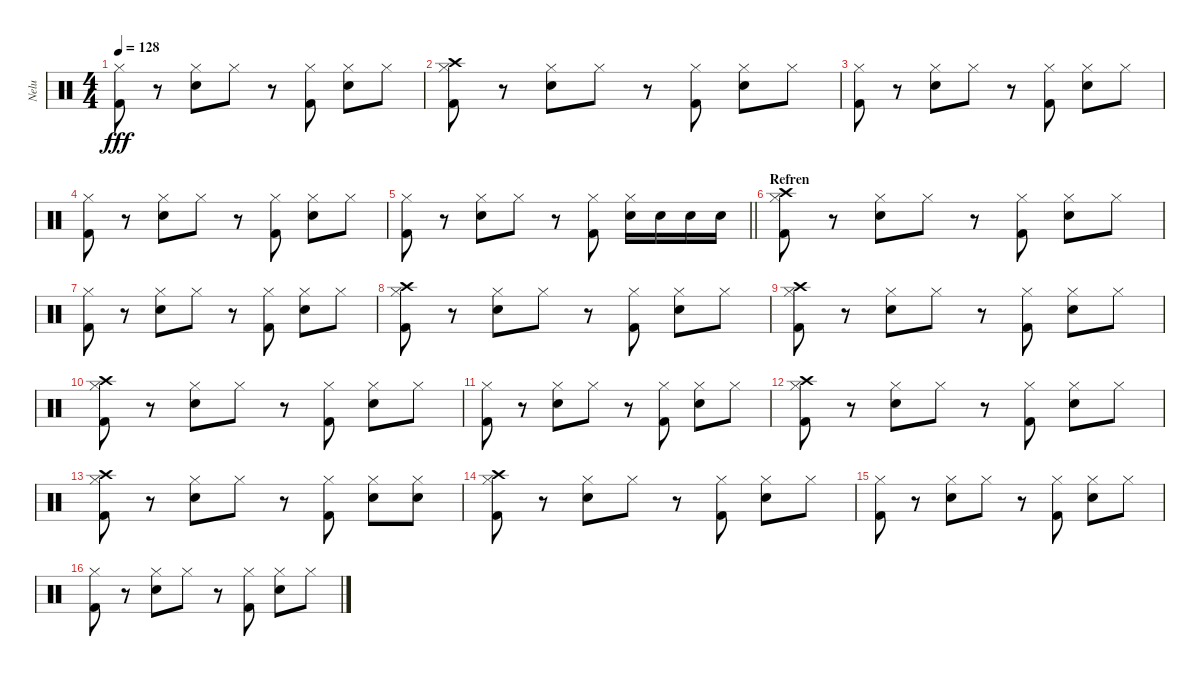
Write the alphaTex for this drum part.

\track ("Nelu" "Nelu") {instrument percussion}
\staff {score}
\articulation defaults
\ts (4 4)
\tempo 128
\clef neutral
\ks c
("Kick (hit) 2" "Hi-Hat (closed)").8{dy fff} r.8 ("Electric Snare (hit)" "Hi-Hat (closed)").8 "Hi-Hat (closed)".8 r.8 ("Hi-Hat (closed)" "Kick (hit) 2").8 ("Hi-Hat (closed)" "Electric Snare (hit)").8 "Hi-Hat (closed)".8 |
("Kick (hit) 2" "Crash high (hit)" "Hi-Hat (closed)").8 r.8 ("Electric Snare (hit)" "Hi-Hat (closed)").8 "Hi-Hat (closed)".8 r.8 ("Hi-Hat (closed)" "Kick (hit) 2").8 ("Hi-Hat (closed)" "Electric Snare (hit)").8 "Hi-Hat (closed)".8 |
("Kick (hit) 2" "Hi-Hat (closed)").8 r.8 ("Electric Snare (hit)" "Hi-Hat (closed)").8 "Hi-Hat (closed)".8 r.8 ("Hi-Hat (closed)" "Kick (hit) 2").8 ("Hi-Hat (closed)" "Electric Snare (hit)").8 "Hi-Hat (closed)".8 |
("Kick (hit) 2" "Hi-Hat (closed)").8 r.8 ("Electric Snare (hit)" "Hi-Hat (closed)").8 "Hi-Hat (closed)".8 r.8 ("Hi-Hat (closed)" "Kick (hit) 2").8 ("Hi-Hat (closed)" "Electric Snare (hit)").8 "Hi-Hat (closed)".8 |
\barLineRight lightlight
("Kick (hit) 2" "Hi-Hat (closed)").8 r.8 ("Electric Snare (hit)" "Hi-Hat (closed)").8 "Hi-Hat (closed)".8 r.8 ("Hi-Hat (closed)" "Kick (hit) 2").8 ("Hi-Hat (closed)" "Electric Snare (hit)").16 "Electric Snare (hit)".16 "Electric Snare (hit)".16 "Electric Snare (hit)".16 |
\section ("" "Refren ")
("Kick (hit) 2" "Crash high (hit)" "Hi-Hat (closed)").8 r.8 ("Electric Snare (hit)" "Hi-Hat (closed)").8 "Hi-Hat (closed)".8 r.8 ("Hi-Hat (closed)" "Kick (hit) 2").8 ("Hi-Hat (closed)" "Electric Snare (hit)").8 "Hi-Hat (closed)".8 |
("Kick (hit) 2" "Hi-Hat (closed)").8 r.8 ("Electric Snare (hit)" "Hi-Hat (closed)").8 "Hi-Hat (closed)".8 r.8 ("Hi-Hat (closed)" "Kick (hit) 2").8 ("Hi-Hat (closed)" "Electric Snare (hit)").8 "Hi-Hat (closed)".8 |
("Kick (hit) 2" "Crash high (hit)" "Hi-Hat (closed)").8 r.8 ("Electric Snare (hit)" "Hi-Hat (closed)").8 "Hi-Hat (closed)".8 r.8 ("Hi-Hat (closed)" "Kick (hit) 2").8 ("Hi-Hat (closed)" "Electric Snare (hit)").8 "Hi-Hat (closed)".8 |
("Kick (hit) 2" "Crash high (hit)" "Hi-Hat (closed)").8 r.8 ("Electric Snare (hit)" "Hi-Hat (closed)").8 "Hi-Hat (closed)".8 r.8 ("Hi-Hat (closed)" "Kick (hit) 2").8 ("Hi-Hat (closed)" "Electric Snare (hit)").8 "Hi-Hat (closed)".8 |
("Kick (hit) 2" "Crash high (hit)" "Hi-Hat (closed)").8 r.8 ("Electric Snare (hit)" "Hi-Hat (closed)").8 "Hi-Hat (closed)".8 r.8 ("Hi-Hat (closed)" "Kick (hit) 2").8 ("Hi-Hat (closed)" "Electric Snare (hit)").8 "Hi-Hat (closed)".8 |
("Kick (hit) 2" "Hi-Hat (closed)").8 r.8 ("Electric Snare (hit)" "Hi-Hat (closed)").8 "Hi-Hat (closed)".8 r.8 ("Hi-Hat (closed)" "Kick (hit) 2").8 ("Hi-Hat (closed)" "Electric Snare (hit)").8 "Hi-Hat (closed)".8 |
("Kick (hit) 2" "Crash high (hit)" "Hi-Hat (closed)").8 r.8 ("Electric Snare (hit)" "Hi-Hat (closed)").8 "Hi-Hat (closed)".8 r.8 ("Hi-Hat (closed)" "Kick (hit) 2").8 ("Hi-Hat (closed)" "Electric Snare (hit)").8 "Hi-Hat (closed)".8 |
("Kick (hit) 2" "Crash high (hit)" "Hi-Hat (closed)").8 r.8 ("Electric Snare (hit)" "Hi-Hat (closed)").8 "Hi-Hat (closed)".8 r.8 ("Hi-Hat (closed)" "Kick (hit) 2").8 ("Hi-Hat (closed)" "Electric Snare (hit)").8 ("Electric Snare (hit)" "Hi-Hat (closed)").8 |
("Kick (hit) 2" "Crash high (hit)" "Hi-Hat (closed)").8 r.8 ("Electric Snare (hit)" "Hi-Hat (closed)").8 "Hi-Hat (closed)".8 r.8 ("Hi-Hat (closed)" "Kick (hit) 2").8 ("Hi-Hat (closed)" "Electric Snare (hit)").8 "Hi-Hat (closed)".8 |
("Kick (hit) 2" "Hi-Hat (closed)").8 r.8 ("Electric Snare (hit)" "Hi-Hat (closed)").8 "Hi-Hat (closed)".8 r.8 ("Hi-Hat (closed)" "Kick (hit) 2").8 ("Hi-Hat (closed)" "Electric Snare (hit)").8 "Hi-Hat (closed)".8 |
("Kick (hit) 2" "Hi-Hat (closed)").8 r.8 ("Electric Snare (hit)" "Hi-Hat (closed)").8 "Hi-Hat (closed)".8 r.8 ("Hi-Hat (closed)" "Kick (hit) 2").8 ("Hi-Hat (closed)" "Electric Snare (hit)").8 "Hi-Hat (closed)".8
